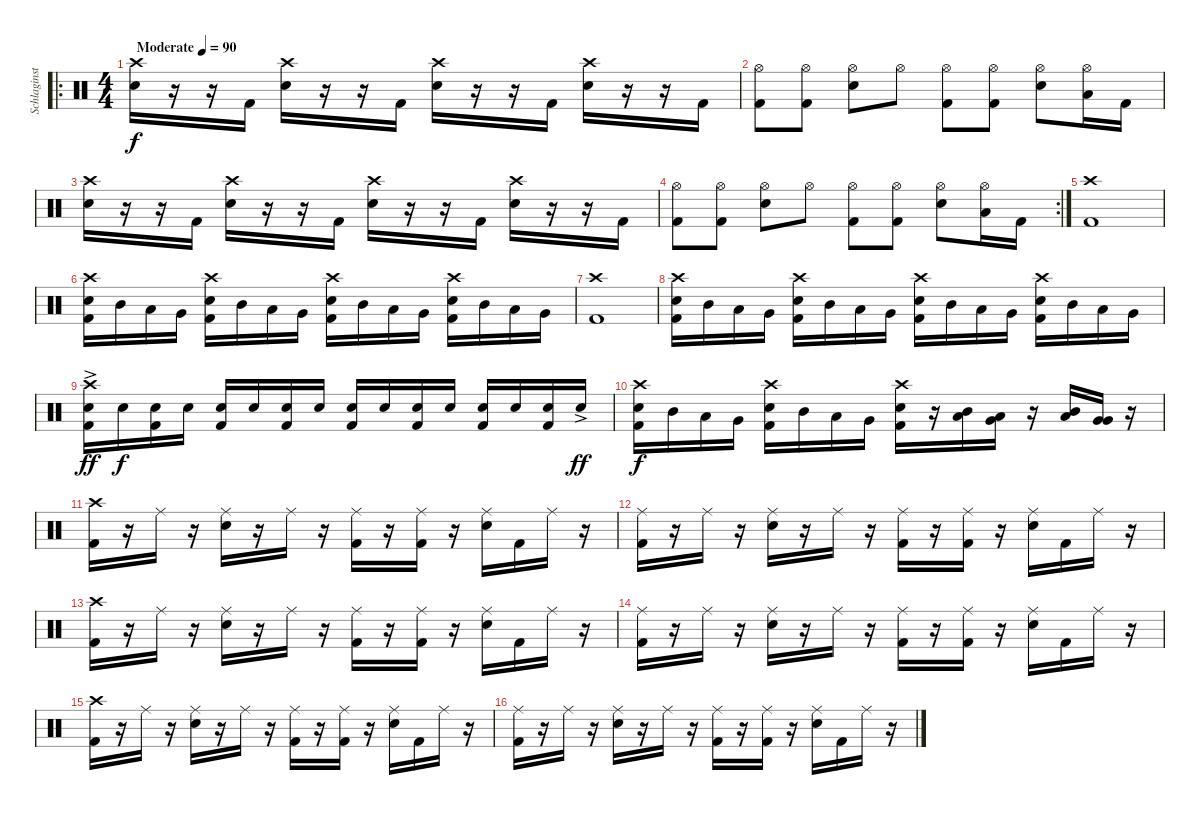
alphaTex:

\track ("Schlaginstrumente - Auswahl" "Schlaginst") {instrument percussion}
\staff {score}
\articulation defaults
\ro
\ts (4 4)
\tempo (90 "Moderate")
\clef neutral
\ks c
("Crash high (hit)" "Snare (hit) 2").16{dy f} r.16 r.16 "Kick (hit) 2".16 ("Crash high (hit)" "Snare (hit) 2").16 r.16 r.16 "Kick (hit) 2".16 ("Crash high (hit)" "Snare (hit) 2").16 r.16 r.16 "Kick (hit) 2".16 ("Crash high (hit)" "Snare (hit) 2").16 r.16 r.16 "Kick (hit) 2".16 |
("Hi-Hat (open)" "Kick (hit) 2").8 ("Hi-Hat (open)" "Kick (hit) 2").8 ("Hi-Hat (open)" "Snare (hit) 2").8 "Hi-Hat (open)".8 ("Hi-Hat (open)" "Kick (hit) 2").8 ("Hi-Hat (open)" "Kick (hit) 2").8 ("Hi-Hat (open)" "Snare (hit) 2").8 ("Hi-Hat (open)" "Low Tom (hit)").16 "Kick (hit) 2".16 |
("Crash high (hit)" "Snare (hit) 2").16 r.16 r.16 "Kick (hit) 2".16 ("Crash high (hit)" "Snare (hit) 2").16 r.16 r.16 "Kick (hit) 2".16 ("Crash high (hit)" "Snare (hit) 2").16 r.16 r.16 "Kick (hit) 2".16 ("Crash high (hit)" "Snare (hit) 2").16 r.16 r.16 "Kick (hit) 2".16 |
\rc 2
("Hi-Hat (open)" "Kick (hit) 2").8 ("Hi-Hat (open)" "Kick (hit) 2").8 ("Hi-Hat (open)" "Snare (hit) 2").8 "Hi-Hat (open)".8 ("Hi-Hat (open)" "Kick (hit) 2").8 ("Hi-Hat (open)" "Kick (hit) 2").8 ("Hi-Hat (open)" "Snare (hit) 2").8 ("Hi-Hat (open)" "Low Tom (hit)").16 "Kick (hit) 2".16 |
("Crash high (hit)" "Kick (hit) 2").1 |
("Crash high (hit)" "Snare (hit) 2" "Kick (hit) 2").16 "Mid Tom (hit)".16 "Low Tom (hit)".16 "Very Low Tom (hit)".16 ("Crash high (hit)" "Snare (hit) 2" "Kick (hit) 2").16 "Mid Tom (hit)".16 "Low Tom (hit)".16 "Very Low Tom (hit)".16 ("Crash high (hit)" "Snare (hit) 2" "Kick (hit) 2").16 "Mid Tom (hit)".16 "Low Tom (hit)".16 "Very Low Tom (hit)".16 ("Crash high (hit)" "Snare (hit) 2" "Kick (hit) 2").16 "Mid Tom (hit)".16 "Low Tom (hit)".16 "Very Low Tom (hit)".16 |
("Crash high (hit)" "Kick (hit) 2").1 |
("Crash high (hit)" "Snare (hit) 2" "Kick (hit) 2").16 "Mid Tom (hit)".16 "Low Tom (hit)".16 "Very Low Tom (hit)".16 ("Crash high (hit)" "Snare (hit) 2" "Kick (hit) 2").16 "Mid Tom (hit)".16 "Low Tom (hit)".16 "Very Low Tom (hit)".16 ("Crash high (hit)" "Snare (hit) 2" "Kick (hit) 2").16 "Mid Tom (hit)".16 "Low Tom (hit)".16 "Very Low Tom (hit)".16 ("Crash high (hit)" "Snare (hit) 2" "Kick (hit) 2").16 "Mid Tom (hit)".16 "Low Tom (hit)".16 "Very Low Tom (hit)".16 |
("Crash high (hit)" "Snare (hit) 2"{ac} "Kick (hit) 2").16{dy ff} "Snare (hit) 2".16{dy f} ("Snare (hit) 2" "Kick (hit) 2").16 "Snare (hit) 2".16 ("Snare (hit) 2" "Kick (hit) 2").16 "Snare (hit) 2".16 ("Snare (hit) 2" "Kick (hit) 2").16 "Snare (hit) 2".16 ("Snare (hit) 2" "Kick (hit) 2").16 "Snare (hit) 2".16 ("Snare (hit) 2" "Kick (hit) 2").16 "Snare (hit) 2".16 ("Snare (hit) 2" "Kick (hit) 2").16 "Snare (hit) 2".16 ("Snare (hit) 2" "Kick (hit) 2").16 "Snare (hit) 2"{ac}.16{dy ff} |
("Crash high (hit)" "Snare (hit) 2" "Kick (hit) 2").16{dy f} "Mid Tom (hit)".16 "Low Tom (hit)".16 "Very Low Tom (hit)".16 ("Crash high (hit)" "Snare (hit) 2" "Kick (hit) 2").16 "Mid Tom (hit)".16 "Low Tom (hit)".16 "Very Low Tom (hit)".16 ("Crash high (hit)" "Snare (hit) 2" "Kick (hit) 2").16 r.16 ("Low Tom (hit)" "Mid Tom (hit)").16 ("Very Low Tom (hit)" "Low Tom (hit)").16 r.16 ("Mid Tom (hit)" "Low Tom (hit)").16 ("Very Low Tom (hit)" "Very Low Tom (hit)").16 r.16 |
("Crash high (hit)" "Kick (hit) 2").16 r.16 "Ride (middle)".16 r.16 ("Ride (middle)" "Snare (hit) 2").16 r.16 "Ride (middle)".16 r.16 ("Ride (middle)" "Kick (hit) 2").16 r.16 ("Ride (middle)" "Kick (hit) 2").16 r.16 ("Ride (middle)" "Snare (hit) 2").16 "Kick (hit) 2".16 "Ride (middle)".16 r.16 |
("Ride (middle)" "Kick (hit) 2").16 r.16 "Ride (middle)".16 r.16 ("Ride (middle)" "Snare (hit) 2").16 r.16 "Ride (middle)".16 r.16 ("Ride (middle)" "Kick (hit) 2").16 r.16 ("Ride (middle)" "Kick (hit) 2").16 r.16 ("Ride (middle)" "Snare (hit) 2").16 "Kick (hit) 2".16 "Ride (middle)".16 r.16 |
("Crash high (hit)" "Kick (hit) 2").16 r.16 "Ride (middle)".16 r.16 ("Ride (middle)" "Snare (hit) 2").16 r.16 "Ride (middle)".16 r.16 ("Ride (middle)" "Kick (hit) 2").16 r.16 ("Ride (middle)" "Kick (hit) 2").16 r.16 ("Ride (middle)" "Snare (hit) 2").16 "Kick (hit) 2".16 "Ride (middle)".16 r.16 |
("Ride (middle)" "Kick (hit) 2").16 r.16 "Ride (middle)".16 r.16 ("Ride (middle)" "Snare (hit) 2").16 r.16 "Ride (middle)".16 r.16 ("Ride (middle)" "Kick (hit) 2").16 r.16 ("Ride (middle)" "Kick (hit) 2").16 r.16 ("Ride (middle)" "Snare (hit) 2").16 "Kick (hit) 2".16 "Ride (middle)".16 r.16 |
("Crash high (hit)" "Kick (hit) 2").16 r.16 "Ride (middle)".16 r.16 ("Ride (middle)" "Snare (hit) 2").16 r.16 "Ride (middle)".16 r.16 ("Ride (middle)" "Kick (hit) 2").16 r.16 ("Ride (middle)" "Kick (hit) 2").16 r.16 ("Ride (middle)" "Snare (hit) 2").16 "Kick (hit) 2".16 "Ride (middle)".16 r.16 |
("Ride (middle)" "Kick (hit) 2").16 r.16 "Ride (middle)".16 r.16 ("Ride (middle)" "Snare (hit) 2").16 r.16 "Ride (middle)".16 r.16 ("Ride (middle)" "Kick (hit) 2").16 r.16 ("Ride (middle)" "Kick (hit) 2").16 r.16 ("Ride (middle)" "Snare (hit) 2").16 "Kick (hit) 2".16 "Ride (middle)".16 r.16
